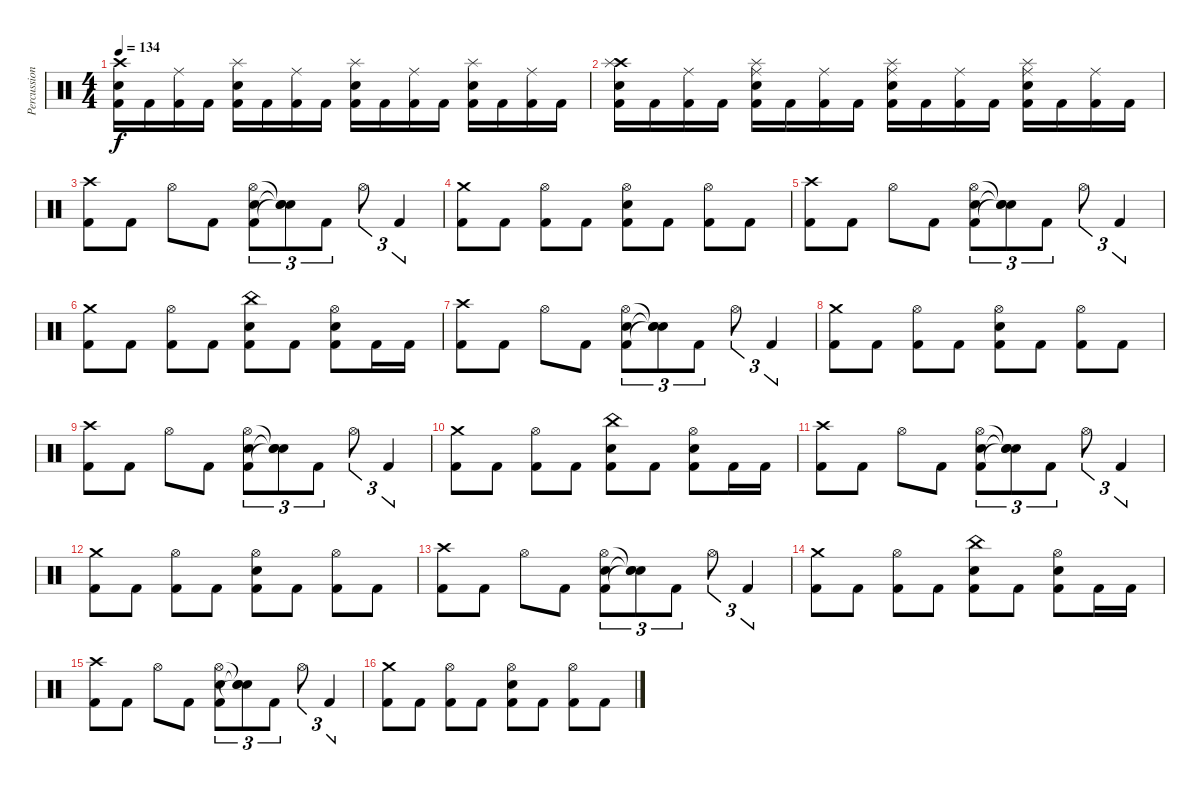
\track ("Percussion" "Percussion") {instrument percussion}
\staff {score}
\articulation defaults
\ts (4 4)
\tempo 134
\clef neutral
\ks c
("Crash high (hit)" "Snare (hit) 2" "Kick (hit) 2").16{dy f} "Kick (hit) 2".16 ("Ride (middle)" "Kick (hit) 2").16 "Kick (hit) 2".16 ("Splash (hit)" "Snare (hit) 2" "Kick (hit) 2").16 "Kick (hit) 2".16 ("Ride (middle)" "Kick (hit) 2").16 "Kick (hit) 2".16 ("Splash (hit)" "Kick (hit) 2" "Snare (hit) 2").16 "Kick (hit) 2".16 ("Ride (middle)" "Kick (hit) 2").16 "Kick (hit) 2".16 ("Splash (hit)" "Snare (hit) 2" "Kick (hit) 2").16 "Kick (hit) 2".16 ("Ride (middle)" "Kick (hit) 2").16 "Kick (hit) 2".16 |
("Crash high (hit)" "Snare (hit) 2" "Kick (hit) 2" "Splash (hit)").16 "Kick (hit) 2".16 ("Ride (middle)" "Kick (hit) 2").16 "Kick (hit) 2".16 ("Ride (middle)" "Snare (hit) 2" "Kick (hit) 2" "Splash (hit)").16 "Kick (hit) 2".16 ("Ride (middle)" "Kick (hit) 2").16 "Kick (hit) 2".16 ("Ride (middle)" "Kick (hit) 2" "Snare (hit) 2" "Splash (hit)").16 "Kick (hit) 2".16 ("Ride (middle)" "Kick (hit) 2").16 "Kick (hit) 2".16 ("Ride (middle)" "Snare (hit) 2" "Kick (hit) 2" "Splash (hit)").16 "Kick (hit) 2".16 ("Ride (middle)" "Kick (hit) 2").16 "Kick (hit) 2".16 |
("Crash high (hit)" "Kick (hit) 2").8 "Kick (hit) 2".8 "Hi-Hat (open)".8 "Kick (hit) 2".8 ("Hi-Hat (open)" "Snare (hit) 2" "Kick (hit) 2").8{tu (3 2)} ("Snare (hit)"{t} "Snare (hit)"{t} "Snare (hit)"{t}).8{tu (3 2)} "Kick (hit) 2".8{tu (3 2)} "Hi-Hat (open)".8{tu (3 2)} "Kick (hit) 2".4{tu (3 2)} |
("Crash medium (hit)" "Kick (hit) 2").8 "Kick (hit) 2".8 ("Hi-Hat (open)" "Kick (hit) 2").8 "Kick (hit) 2".8 ("Hi-Hat (open)" "Snare (hit) 2" "Kick (hit) 2").8 "Kick (hit) 2".8 ("Hi-Hat (open)" "Kick (hit) 2").8 "Kick (hit) 2".8 |
("Crash high (hit)" "Kick (hit) 2").8 "Kick (hit) 2".8 "Hi-Hat (open)".8 "Kick (hit) 2".8 ("Hi-Hat (open)" "Snare (hit) 2" "Kick (hit) 2").8{tu (3 2)} ("Snare (hit)"{t} "Snare (hit)"{t} "Snare (hit)"{t}).8{tu (3 2)} "Kick (hit) 2".8{tu (3 2)} "Hi-Hat (open)".8{tu (3 2)} "Kick (hit) 2".4{tu (3 2)} |
("Crash medium (hit)" "Kick (hit) 2").8 "Kick (hit) 2".8 ("Hi-Hat (open)" "Kick (hit) 2").8 "Kick (hit) 2".8 ("China (hit)" "Snare (hit) 2" "Kick (hit) 2").8 "Kick (hit) 2".8 ("Hi-Hat (open)" "Snare (hit) 2" "Kick (hit) 2").8 "Kick (hit) 2".16 "Kick (hit) 2".16 |
("Crash high (hit)" "Kick (hit) 2").8 "Kick (hit) 2".8 "Hi-Hat (open)".8 "Kick (hit) 2".8 ("Hi-Hat (open)" "Snare (hit) 2" "Kick (hit) 2").8{tu (3 2)} ("Snare (hit)"{t} "Snare (hit)"{t} "Snare (hit)"{t}).8{tu (3 2)} "Kick (hit) 2".8{tu (3 2)} "Hi-Hat (open)".8{tu (3 2)} "Kick (hit) 2".4{tu (3 2)} |
("Crash medium (hit)" "Kick (hit) 2").8 "Kick (hit) 2".8 ("Hi-Hat (open)" "Kick (hit) 2").8 "Kick (hit) 2".8 ("Hi-Hat (open)" "Snare (hit) 2" "Kick (hit) 2").8 "Kick (hit) 2".8 ("Hi-Hat (open)" "Kick (hit) 2").8 "Kick (hit) 2".8 |
("Crash high (hit)" "Kick (hit) 2").8 "Kick (hit) 2".8 "Hi-Hat (open)".8 "Kick (hit) 2".8 ("Hi-Hat (open)" "Snare (hit) 2" "Kick (hit) 2").8{tu (3 2)} ("Snare (hit)"{t} "Snare (hit)"{t} "Snare (hit)"{t}).8{tu (3 2)} "Kick (hit) 2".8{tu (3 2)} "Hi-Hat (open)".8{tu (3 2)} "Kick (hit) 2".4{tu (3 2)} |
("Crash medium (hit)" "Kick (hit) 2").8 "Kick (hit) 2".8 ("Hi-Hat (open)" "Kick (hit) 2").8 "Kick (hit) 2".8 ("China (hit)" "Snare (hit) 2" "Kick (hit) 2").8 "Kick (hit) 2".8 ("Hi-Hat (open)" "Snare (hit) 2" "Kick (hit) 2").8 "Kick (hit) 2".16 "Kick (hit) 2".16 |
("Crash high (hit)" "Kick (hit) 2").8 "Kick (hit) 2".8 "Hi-Hat (open)".8 "Kick (hit) 2".8 ("Hi-Hat (open)" "Snare (hit) 2" "Kick (hit) 2").8{tu (3 2)} ("Snare (hit)"{t} "Snare (hit)"{t} "Snare (hit)"{t}).8{tu (3 2)} "Kick (hit) 2".8{tu (3 2)} "Hi-Hat (open)".8{tu (3 2)} "Kick (hit) 2".4{tu (3 2)} |
("Crash medium (hit)" "Kick (hit) 2").8 "Kick (hit) 2".8 ("Hi-Hat (open)" "Kick (hit) 2").8 "Kick (hit) 2".8 ("Hi-Hat (open)" "Snare (hit) 2" "Kick (hit) 2").8 "Kick (hit) 2".8 ("Hi-Hat (open)" "Kick (hit) 2").8 "Kick (hit) 2".8 |
("Crash high (hit)" "Kick (hit) 2").8 "Kick (hit) 2".8 "Hi-Hat (open)".8 "Kick (hit) 2".8 ("Hi-Hat (open)" "Snare (hit) 2" "Kick (hit) 2").8{tu (3 2)} ("Snare (hit)"{t} "Snare (hit)"{t} "Snare (hit)"{t}).8{tu (3 2)} "Kick (hit) 2".8{tu (3 2)} "Hi-Hat (open)".8{tu (3 2)} "Kick (hit) 2".4{tu (3 2)} |
("Crash medium (hit)" "Kick (hit) 2").8 "Kick (hit) 2".8 ("Hi-Hat (open)" "Kick (hit) 2").8 "Kick (hit) 2".8 ("China (hit)" "Snare (hit) 2" "Kick (hit) 2").8 "Kick (hit) 2".8 ("Hi-Hat (open)" "Snare (hit) 2" "Kick (hit) 2").8 "Kick (hit) 2".16 "Kick (hit) 2".16 |
("Crash high (hit)" "Kick (hit) 2").8 "Kick (hit) 2".8 "Hi-Hat (open)".8 "Kick (hit) 2".8 ("Hi-Hat (open)" "Snare (hit) 2" "Kick (hit) 2").8{tu (3 2)} ("Snare (hit)"{t} "Snare (hit)"{t} "Snare (hit)"{t}).8{tu (3 2)} "Kick (hit) 2".8{tu (3 2)} "Hi-Hat (open)".8{tu (3 2)} "Kick (hit) 2".4{tu (3 2)} |
("Crash medium (hit)" "Kick (hit) 2").8 "Kick (hit) 2".8 ("Hi-Hat (open)" "Kick (hit) 2").8 "Kick (hit) 2".8 ("Hi-Hat (open)" "Snare (hit) 2" "Kick (hit) 2").8 "Kick (hit) 2".8 ("Hi-Hat (open)" "Kick (hit) 2").8 "Kick (hit) 2".8
